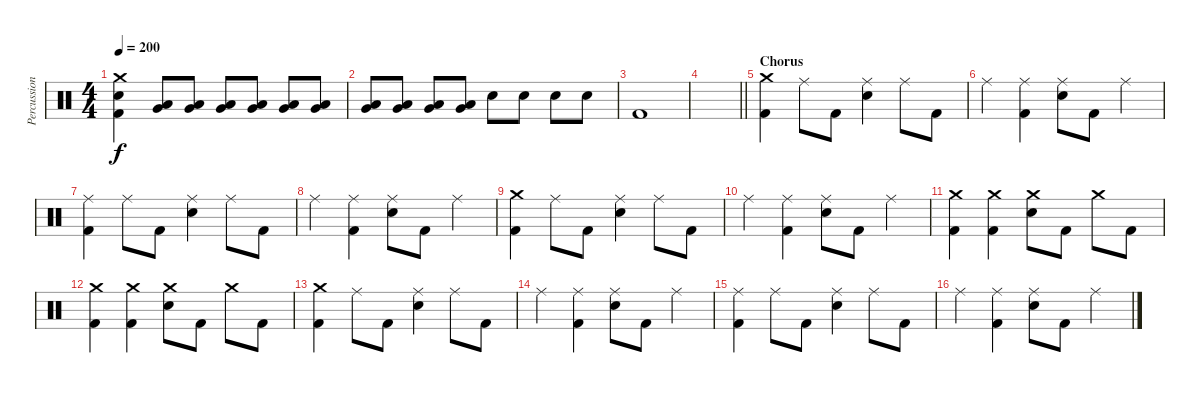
\track ("Percussion" "Percussion") {instrument percussion}
\staff {score}
\articulation defaults
\ts (4 4)
\tempo 200
\clef neutral
\ks c
("Crash medium (hit)" "Electric Snare (hit)" "Kick (hit) 2").4{dy f} ("Very Low Tom (hit)" "Low Floor Tom (hit)").8 ("Very Low Tom (hit)" "Low Floor Tom (hit)").8 ("Very Low Tom (hit)" "Low Floor Tom (hit)").8 ("Very Low Tom (hit)" "Low Floor Tom (hit)").8 ("Very Low Tom (hit)" "Low Floor Tom (hit)").8 ("Very Low Tom (hit)" "Low Floor Tom (hit)").8 |
("Very Low Tom (hit)" "Low Floor Tom (hit)").8 ("Very Low Tom (hit)" "Low Floor Tom (hit)").8 ("Very Low Tom (hit)" "Low Floor Tom (hit)").8 ("Very Low Tom (hit)" "Low Floor Tom (hit)").8 "Electric Snare (hit)".8 "Electric Snare (hit)".8 "Electric Snare (hit)".8 "Electric Snare (hit)".8 |
"Kick (hit) 2".1 |
\barLineRight lightlight
|
\section ("" "Chorus")
("Crash medium (hit)" "Kick (hit) 2").4 "Ride (middle)".8 "Kick (hit) 2".8 ("Ride (middle)" "Electric Snare (hit)").4 "Ride (middle)".8 "Kick (hit) 2".8 |
"Ride (middle)".4 ("Ride (middle)" "Kick (hit) 2").4 ("Ride (middle)" "Electric Snare (hit)").8 "Kick (hit) 2".8 "Ride (middle)".4 |
("Ride (middle)" "Kick (hit) 2").4 "Ride (middle)".8 "Kick (hit) 2".8 ("Ride (middle)" "Electric Snare (hit)").4 "Ride (middle)".8 "Kick (hit) 2".8 |
"Ride (middle)".4 ("Ride (middle)" "Kick (hit) 2").4 ("Ride (middle)" "Electric Snare (hit)").8 "Kick (hit) 2".8 "Ride (middle)".4 |
("Crash medium (hit)" "Kick (hit) 2").4 "Ride (middle)".8 "Kick (hit) 2".8 ("Ride (middle)" "Electric Snare (hit)").4 "Ride (middle)".8 "Kick (hit) 2".8 |
"Ride (middle)".4 ("Ride (middle)" "Kick (hit) 2").4 ("Ride (middle)" "Electric Snare (hit)").8 "Kick (hit) 2".8 "Ride (middle)".4 |
("Crash medium (hit)" "Kick (hit) 2").4 ("Crash medium (hit)" "Kick (hit) 2").4 ("Crash medium (hit)" "Electric Snare (hit)").8 "Kick (hit) 2".8 "Crash medium (hit)".8 "Kick (hit) 2".8 |
("Crash medium (hit)" "Kick (hit) 2").4 ("Crash medium (hit)" "Kick (hit) 2").4 ("Crash medium (hit)" "Electric Snare (hit)").8 "Kick (hit) 2".8 "Crash medium (hit)".8 "Kick (hit) 2".8 |
("Crash medium (hit)" "Kick (hit) 2").4 "Ride (middle)".8 "Kick (hit) 2".8 ("Ride (middle)" "Electric Snare (hit)").4 "Ride (middle)".8 "Kick (hit) 2".8 |
"Ride (middle)".4 ("Ride (middle)" "Kick (hit) 2").4 ("Ride (middle)" "Electric Snare (hit)").8 "Kick (hit) 2".8 "Ride (middle)".4 |
("Ride (middle)" "Kick (hit) 2").4 "Ride (middle)".8 "Kick (hit) 2".8 ("Ride (middle)" "Electric Snare (hit)").4 "Ride (middle)".8 "Kick (hit) 2".8 |
"Ride (middle)".4 ("Ride (middle)" "Kick (hit) 2").4 ("Ride (middle)" "Electric Snare (hit)").8 "Kick (hit) 2".8 "Ride (middle)".4
